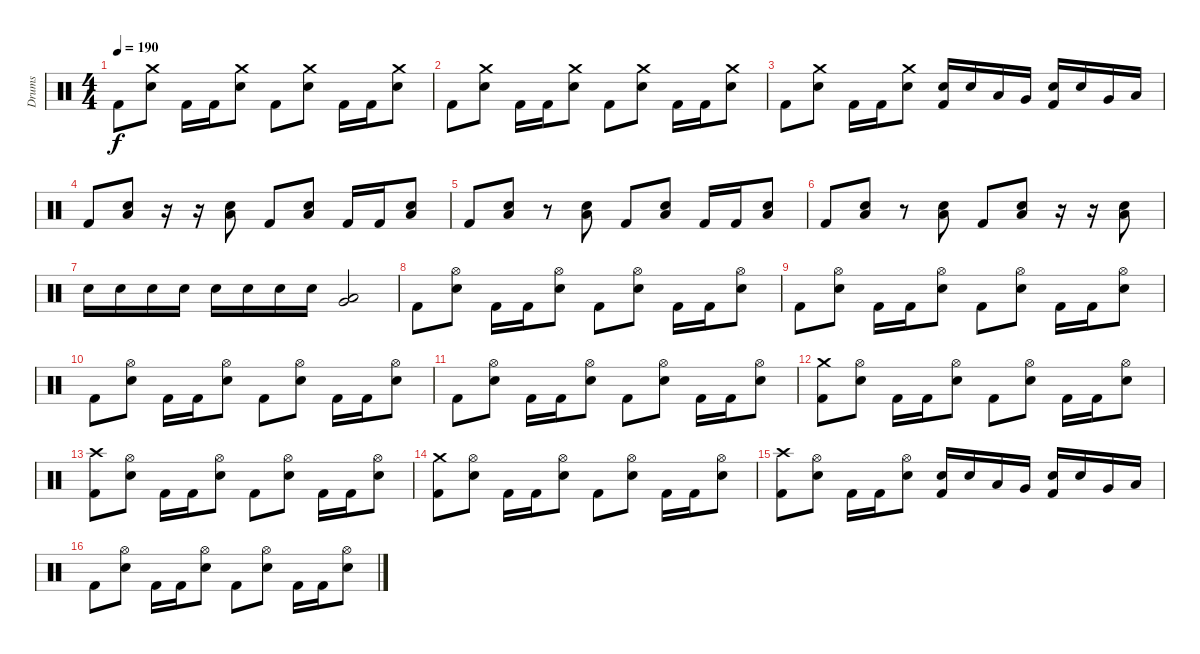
\track ("Drums" "Drums") {instrument percussion}
\staff {score}
\articulation defaults
\ts (4 4)
\tempo 190
\clef neutral
\ks c "Kick (hit) 2".8{dy f}
("Crash medium (hit)" "Electric Snare (hit)").8 "Kick (hit) 2".16 "Kick (hit) 2".16 ("Crash medium (hit)" "Electric Snare (hit)").8 "Kick (hit) 2".8 ("Crash medium (hit)" "Electric Snare (hit)").8 "Kick (hit) 2".16 "Kick (hit) 2".16 ("Crash medium (hit)" "Electric Snare (hit)").8 |
"Kick (hit) 2".8 ("Crash medium (hit)" "Electric Snare (hit)").8 "Kick (hit) 2".16 "Kick (hit) 2".16 ("Crash medium (hit)" "Electric Snare (hit)").8 "Kick (hit) 2".8 ("Crash medium (hit)" "Electric Snare (hit)").8 "Kick (hit) 2".16 "Kick (hit) 2".16 ("Crash medium (hit)" "Electric Snare (hit)").8 |
"Kick (hit) 2".8 ("Crash medium (hit)" "Electric Snare (hit)").8 "Kick (hit) 2".16 "Kick (hit) 2".16 ("Crash medium (hit)" "Electric Snare (hit)").8 ("Electric Snare (hit)" "Kick (hit) 2").16 "Electric Snare (hit)".16 "Low Tom (hit)".16 "Very Low Tom (hit)".16 ("Electric Snare (hit)" "Kick (hit) 2").16 "Electric Snare (hit)".16 "Very Low Tom (hit)".16 "Low Floor Tom (hit)".16 |
"Kick (hit) 2".8 ("Low Tom (hit)" "Electric Snare (hit)").8 r.16 r.16 ("Low Tom (hit)" "Electric Snare (hit)").8 "Kick (hit) 2".8 ("Low Tom (hit)" "Electric Snare (hit)").8 "Kick (hit) 2".16 "Kick (hit) 2".16 ("Low Tom (hit)" "Electric Snare (hit)").8 |
"Kick (hit) 2".8 ("Low Tom (hit)" "Electric Snare (hit)").8 r.8 ("Low Tom (hit)" "Electric Snare (hit)").8 "Kick (hit) 2".8 ("Low Tom (hit)" "Electric Snare (hit)").8 "Kick (hit) 2".16 "Kick (hit) 2".16 ("Low Tom (hit)" "Electric Snare (hit)").8 |
"Kick (hit) 2".8 ("Low Tom (hit)" "Electric Snare (hit)").8 r.8 ("Low Tom (hit)" "Electric Snare (hit)").8 "Kick (hit) 2".8 ("Low Tom (hit)" "Electric Snare (hit)").8 r.16 r.16 ("Low Tom (hit)" "Electric Snare (hit)").8 |
"Electric Snare (hit)".16 "Electric Snare (hit)".16 "Electric Snare (hit)".16 "Electric Snare (hit)".16 "Electric Snare (hit)".16 "Electric Snare (hit)".16 "Electric Snare (hit)".16 "Electric Snare (hit)".16 ("Low Tom (hit)" "Very Low Tom (hit)").2 |
"Kick (hit) 2".8 ("Hi-Hat (open)" "Electric Snare (hit)").8 "Kick (hit) 2".16 "Kick (hit) 2".16 ("Hi-Hat (open)" "Electric Snare (hit)").8 "Kick (hit) 2".8 ("Hi-Hat (open)" "Electric Snare (hit)").8 "Kick (hit) 2".16 "Kick (hit) 2".16 ("Hi-Hat (open)" "Electric Snare (hit)").8 |
"Kick (hit) 2".8 ("Hi-Hat (open)" "Electric Snare (hit)").8 "Kick (hit) 2".16 "Kick (hit) 2".16 ("Hi-Hat (open)" "Electric Snare (hit)").8 "Kick (hit) 2".8 ("Hi-Hat (open)" "Electric Snare (hit)").8 "Kick (hit) 2".16 "Kick (hit) 2".16 ("Hi-Hat (open)" "Electric Snare (hit)").8 |
"Kick (hit) 2".8 ("Hi-Hat (open)" "Electric Snare (hit)").8 "Kick (hit) 2".16 "Kick (hit) 2".16 ("Hi-Hat (open)" "Electric Snare (hit)").8 "Kick (hit) 2".8 ("Hi-Hat (open)" "Electric Snare (hit)").8 "Kick (hit) 2".16 "Kick (hit) 2".16 ("Hi-Hat (open)" "Electric Snare (hit)").8 |
"Kick (hit) 2".8 ("Hi-Hat (open)" "Electric Snare (hit)").8 "Kick (hit) 2".16 "Kick (hit) 2".16 ("Hi-Hat (open)" "Electric Snare (hit)").8 "Kick (hit) 2".8 ("Hi-Hat (open)" "Electric Snare (hit)").8 "Kick (hit) 2".16 "Kick (hit) 2".16 ("Hi-Hat (open)" "Electric Snare (hit)").8 |
("Crash medium (hit)" "Kick (hit) 2").8 ("Hi-Hat (open)" "Electric Snare (hit)").8 "Kick (hit) 2".16 "Kick (hit) 2".16 ("Hi-Hat (open)" "Electric Snare (hit)").8 "Kick (hit) 2".8 ("Hi-Hat (open)" "Electric Snare (hit)").8 "Kick (hit) 2".16 "Kick (hit) 2".16 ("Hi-Hat (open)" "Electric Snare (hit)").8 |
("Crash high (hit)" "Kick (hit) 2").8 ("Hi-Hat (open)" "Electric Snare (hit)").8 "Kick (hit) 2".16 "Kick (hit) 2".16 ("Hi-Hat (open)" "Electric Snare (hit)").8 "Kick (hit) 2".8 ("Hi-Hat (open)" "Electric Snare (hit)").8 "Kick (hit) 2".16 "Kick (hit) 2".16 ("Hi-Hat (open)" "Electric Snare (hit)").8 |
("Crash medium (hit)" "Kick (hit) 2").8 ("Hi-Hat (open)" "Electric Snare (hit)").8 "Kick (hit) 2".16 "Kick (hit) 2".16 ("Hi-Hat (open)" "Electric Snare (hit)").8 "Kick (hit) 2".8 ("Hi-Hat (open)" "Electric Snare (hit)").8 "Kick (hit) 2".16 "Kick (hit) 2".16 ("Hi-Hat (open)" "Electric Snare (hit)").8 |
("Crash high (hit)" "Kick (hit) 2").8 ("Hi-Hat (open)" "Electric Snare (hit)").8 "Kick (hit) 2".16 "Kick (hit) 2".16 ("Hi-Hat (open)" "Electric Snare (hit)").8 ("Electric Snare (hit)" "Kick (hit) 2").16 "Electric Snare (hit)".16 "Low Tom (hit)".16 "Very Low Tom (hit)".16 ("Electric Snare (hit)" "Kick (hit) 2").16 "Electric Snare (hit)".16 "Very Low Tom (hit)".16 "Low Floor Tom (hit)".16 |
"Kick (hit) 2".8 ("Hi-Hat (open)" "Electric Snare (hit)").8 "Kick (hit) 2".16 "Kick (hit) 2".16 ("Hi-Hat (open)" "Electric Snare (hit)").8 "Kick (hit) 2".8 ("Hi-Hat (open)" "Electric Snare (hit)").8 "Kick (hit) 2".16 "Kick (hit) 2".16 ("Hi-Hat (open)" "Electric Snare (hit)").8
